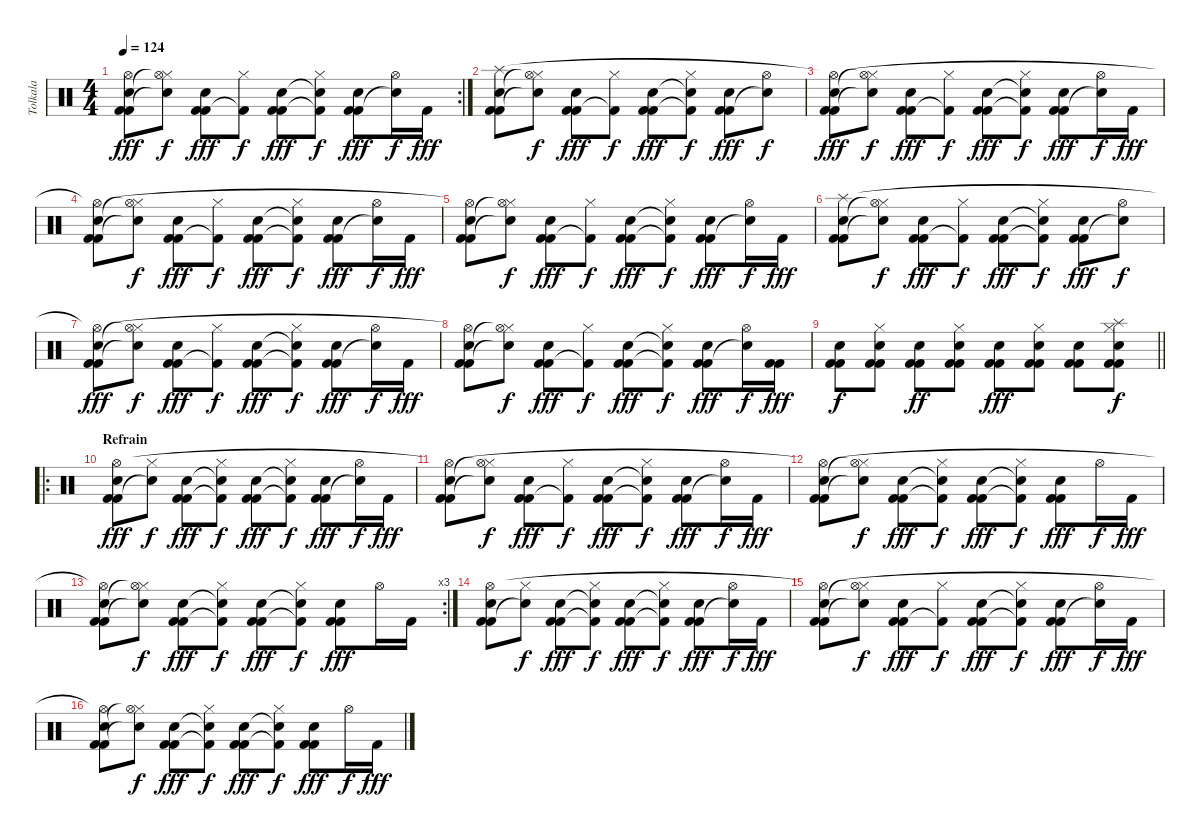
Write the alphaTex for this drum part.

\track ("Tolkala" "Tolkala") {instrument percussion}
\staff {score}
\articulation defaults
\rc 2
\ts (4 4)
\tempo 124
\clef neutral
\ks c
("Kick (hit) 2" "Kick (hit) 2" "Snare (hit) 2" "Hi-Hat (open)"{t}).8{dy fff} ("Hi-Hat (closed)" "Snare (hit) 2"{t} "Hi-Hat (open)"{t}).8{dy f} ("Kick (hit) 2" "Kick (hit) 2" "Snare (hit) 2").8{dy fff} ("Kick (hit) 2"{t} "Hi-Hat (closed)").8{dy f} ("Kick (hit) 2" "Kick (hit) 2" "Snare (hit) 2").8{dy fff} ("Kick (hit) 2"{t} "Hi-Hat (closed)" "Snare (hit) 2"{t}).8{dy f} ("Kick (hit) 2" "Kick (hit) 2" "Snare (hit) 2").8{dy fff} ("Snare (hit) 2"{t} "Hi-Hat (open)").16{dy f} "Kick (hit) 2".16{dy fff} |
("Kick (hit) 2" "Kick (hit) 2" "Snare (hit) 2" "Splash (hit)").8 ("Hi-Hat (closed)" "Snare (hit) 2"{t} "Hi-Hat (open)"{t}).8{dy f} ("Kick (hit) 2" "Kick (hit) 2" "Snare (hit) 2").8{dy fff} ("Kick (hit) 2"{t} "Hi-Hat (closed)").8{dy f} ("Kick (hit) 2" "Kick (hit) 2" "Snare (hit) 2").8{dy fff} ("Kick (hit) 2"{t} "Hi-Hat (closed)" "Snare (hit) 2"{t}).8{dy f} ("Kick (hit) 2" "Kick (hit) 2" "Snare (hit) 2").8{dy fff} ("Snare (hit) 2"{t} "Hi-Hat (open)").8{dy f} |
("Kick (hit) 2" "Kick (hit) 2" "Snare (hit) 2" "Hi-Hat (open)"{t}).8{dy fff} ("Hi-Hat (closed)" "Snare (hit) 2"{t} "Hi-Hat (open)"{t}).8{dy f} ("Kick (hit) 2" "Kick (hit) 2" "Snare (hit) 2").8{dy fff} ("Kick (hit) 2"{t} "Hi-Hat (closed)").8{dy f} ("Kick (hit) 2" "Kick (hit) 2" "Snare (hit) 2").8{dy fff} ("Kick (hit) 2"{t} "Hi-Hat (closed)" "Snare (hit) 2"{t}).8{dy f} ("Kick (hit) 2" "Kick (hit) 2" "Snare (hit) 2").8{dy fff} ("Snare (hit) 2"{t} "Hi-Hat (open)").16{dy f} "Kick (hit) 2".16{dy fff} |
("Kick (hit) 2" "Kick (hit) 2" "Snare (hit) 2" "Hi-Hat (open)"{t}).8 ("Hi-Hat (closed)" "Snare (hit) 2"{t} "Hi-Hat (open)"{t}).8{dy f} ("Kick (hit) 2" "Kick (hit) 2" "Snare (hit) 2").8{dy fff} ("Kick (hit) 2"{t} "Hi-Hat (closed)").8{dy f} ("Kick (hit) 2" "Kick (hit) 2" "Snare (hit) 2").8{dy fff} ("Kick (hit) 2"{t} "Hi-Hat (closed)" "Snare (hit) 2"{t}).8{dy f} ("Kick (hit) 2" "Kick (hit) 2" "Snare (hit) 2").8{dy fff} ("Snare (hit) 2"{t} "Hi-Hat (open)").16{dy f} "Kick (hit) 2".16{dy fff} |
("Kick (hit) 2" "Kick (hit) 2" "Snare (hit) 2" "Hi-Hat (open)"{t}).8 ("Hi-Hat (closed)" "Snare (hit) 2"{t} "Hi-Hat (open)"{t}).8{dy f} ("Kick (hit) 2" "Kick (hit) 2" "Snare (hit) 2").8{dy fff} ("Kick (hit) 2"{t} "Hi-Hat (closed)").8{dy f} ("Kick (hit) 2" "Kick (hit) 2" "Snare (hit) 2").8{dy fff} ("Kick (hit) 2"{t} "Hi-Hat (closed)" "Snare (hit) 2"{t}).8{dy f} ("Kick (hit) 2" "Kick (hit) 2" "Snare (hit) 2").8{dy fff} ("Snare (hit) 2"{t} "Hi-Hat (open)").16{dy f} "Kick (hit) 2".16{dy fff} |
("Kick (hit) 2" "Kick (hit) 2" "Snare (hit) 2" "Splash (hit)").8 ("Hi-Hat (closed)" "Snare (hit) 2"{t} "Hi-Hat (open)"{t}).8{dy f} ("Kick (hit) 2" "Kick (hit) 2" "Snare (hit) 2").8{dy fff} ("Kick (hit) 2"{t} "Hi-Hat (closed)").8{dy f} ("Kick (hit) 2" "Kick (hit) 2" "Snare (hit) 2").8{dy fff} ("Kick (hit) 2"{t} "Hi-Hat (closed)" "Snare (hit) 2"{t}).8{dy f} ("Kick (hit) 2" "Kick (hit) 2" "Snare (hit) 2").8{dy fff} ("Snare (hit) 2"{t} "Hi-Hat (open)").8{dy f} |
("Kick (hit) 2" "Kick (hit) 2" "Snare (hit) 2" "Hi-Hat (open)"{t}).8{dy fff} ("Hi-Hat (closed)" "Snare (hit) 2"{t} "Hi-Hat (open)"{t}).8{dy f} ("Kick (hit) 2" "Kick (hit) 2" "Snare (hit) 2").8{dy fff} ("Kick (hit) 2"{t} "Hi-Hat (closed)").8{dy f} ("Kick (hit) 2" "Kick (hit) 2" "Snare (hit) 2").8{dy fff} ("Kick (hit) 2"{t} "Hi-Hat (closed)" "Snare (hit) 2"{t}).8{dy f} ("Kick (hit) 2" "Kick (hit) 2" "Snare (hit) 2").8{dy fff} ("Snare (hit) 2"{t} "Hi-Hat (open)").16{dy f} "Kick (hit) 2".16{dy fff} |
("Kick (hit) 2" "Kick (hit) 2" "Snare (hit) 2" "Hi-Hat (open)"{t}).8 ("Hi-Hat (closed)" "Snare (hit) 2"{t} "Hi-Hat (open)"{t}).8{dy f} ("Kick (hit) 2" "Kick (hit) 2" "Snare (hit) 2").8{dy fff} ("Kick (hit) 2"{t} "Hi-Hat (closed)").8{dy f} ("Kick (hit) 2" "Kick (hit) 2" "Snare (hit) 2").8{dy fff} ("Kick (hit) 2"{t} "Hi-Hat (closed)" "Snare (hit) 2"{t}).8{dy f} ("Kick (hit) 2" "Kick (hit) 2" "Snare (hit) 2").8{dy fff} ("Snare (hit) 2"{t} "Hi-Hat (open)").16{dy f} ("Kick (hit) 2" "Kick (hit) 2").16{dy fff} |
\barLineRight lightlight
("Kick (hit) 2" "Kick (hit) 2" "Snare (hit) 2").8{dy f} ("Kick (hit) 2" "Kick (hit) 2" "Hi-Hat (closed)" "Snare (hit) 2").8 ("Kick (hit) 2" "Kick (hit) 2" "Snare (hit) 2").8{dy ff} ("Kick (hit) 2" "Kick (hit) 2" "Hi-Hat (closed)" "Snare (hit) 2").8 ("Kick (hit) 2" "Kick (hit) 2" "Snare (hit) 2").8{dy fff} ("Kick (hit) 2" "Kick (hit) 2" "Hi-Hat (closed)" "Snare (hit) 2").8 ("Kick (hit) 2" "Kick (hit) 2" "Snare (hit) 2").8 ("Kick (hit) 2" "Kick (hit) 2" "Hi-Hat (closed)" "Snare (hit) 2" "Splash (hit)").8{dy f} |
\ro
\section ("" "Refrain")
("Kick (hit) 2" "Kick (hit) 2" "Snare (hit) 2" "Hi-Hat (open)").8{dy fff volume 16} ("Hi-Hat (closed)" "Snare (hit) 2"{t}).8{dy f} ("Kick (hit) 2" "Kick (hit) 2" "Snare (hit) 2").8{dy fff} ("Kick (hit) 2"{t} "Hi-Hat (closed)" "Snare (hit) 2"{t}).8{dy f} ("Kick (hit) 2" "Kick (hit) 2" "Snare (hit) 2").8{dy fff} ("Kick (hit) 2"{t} "Hi-Hat (closed)" "Snare (hit) 2"{t}).8{dy f} ("Kick (hit) 2" "Kick (hit) 2" "Snare (hit) 2").8{dy fff} ("Snare (hit) 2"{t} "Hi-Hat (open)").16{dy f} "Kick (hit) 2".16{dy fff} |
("Kick (hit) 2" "Kick (hit) 2" "Snare (hit) 2" "Hi-Hat (open)"{t}).8 ("Hi-Hat (closed)" "Snare (hit) 2"{t} "Hi-Hat (open)"{t}).8{dy f} ("Kick (hit) 2" "Kick (hit) 2" "Snare (hit) 2").8{dy fff} ("Kick (hit) 2"{t} "Hi-Hat (closed)").8{dy f} ("Kick (hit) 2" "Kick (hit) 2" "Snare (hit) 2").8{dy fff} ("Kick (hit) 2"{t} "Hi-Hat (closed)" "Snare (hit) 2"{t}).8{dy f} ("Kick (hit) 2" "Kick (hit) 2" "Snare (hit) 2").8{dy fff} ("Snare (hit) 2"{t} "Hi-Hat (open)").16{dy f} "Kick (hit) 2".16{dy fff} |
("Kick (hit) 2" "Kick (hit) 2" "Snare (hit) 2" "Hi-Hat (open)"{t}).8 ("Hi-Hat (closed)" "Snare (hit) 2"{t} "Hi-Hat (open)"{t}).8{dy f} ("Kick (hit) 2" "Kick (hit) 2" "Snare (hit) 2").8{dy fff} ("Kick (hit) 2"{t} "Hi-Hat (closed)" "Snare (hit) 2"{t}).8{dy f} ("Kick (hit) 2" "Kick (hit) 2" "Snare (hit) 2").8{dy fff} ("Kick (hit) 2"{t} "Hi-Hat (closed)" "Snare (hit) 2"{t}).8{dy f} ("Kick (hit) 2" "Kick (hit) 2" "Snare (hit) 2").8{dy fff} "Hi-Hat (open)".16{dy f} "Kick (hit) 2".16{dy fff} |
\rc 3
("Kick (hit) 2" "Kick (hit) 2" "Snare (hit) 2" "Hi-Hat (open)"{t}).8 ("Hi-Hat (closed)" "Snare (hit) 2"{t} "Hi-Hat (open)"{t}).8{dy f} ("Kick (hit) 2" "Kick (hit) 2" "Snare (hit) 2").8{dy fff} ("Kick (hit) 2"{t} "Hi-Hat (closed)" "Snare (hit) 2"{t}).8{dy f} ("Kick (hit) 2" "Kick (hit) 2" "Snare (hit) 2").8{dy fff} ("Kick (hit) 2"{t} "Hi-Hat (closed)" "Snare (hit) 2"{t}).8{dy f} ("Kick (hit) 2" "Kick (hit) 2" "Snare (hit) 2").8{dy fff} "Hi-Hat (open)".16 "Kick (hit) 2".16 |
("Kick (hit) 2" "Kick (hit) 2" "Snare (hit) 2" "Hi-Hat (open)").8{volume 16} ("Hi-Hat (closed)" "Snare (hit) 2"{t}).8{dy f} ("Kick (hit) 2" "Kick (hit) 2" "Snare (hit) 2").8{dy fff} ("Kick (hit) 2"{t} "Hi-Hat (closed)" "Snare (hit) 2"{t}).8{dy f} ("Kick (hit) 2" "Kick (hit) 2" "Snare (hit) 2").8{dy fff} ("Kick (hit) 2"{t} "Hi-Hat (closed)" "Snare (hit) 2"{t}).8{dy f} ("Kick (hit) 2" "Kick (hit) 2" "Snare (hit) 2").8{dy fff} ("Snare (hit) 2"{t} "Hi-Hat (open)").16{dy f} "Kick (hit) 2".16{dy fff} |
("Kick (hit) 2" "Kick (hit) 2" "Snare (hit) 2" "Hi-Hat (open)"{t}).8 ("Hi-Hat (closed)" "Snare (hit) 2"{t} "Hi-Hat (open)"{t}).8{dy f} ("Kick (hit) 2" "Kick (hit) 2" "Snare (hit) 2").8{dy fff} ("Kick (hit) 2"{t} "Hi-Hat (closed)").8{dy f} ("Kick (hit) 2" "Kick (hit) 2" "Snare (hit) 2").8{dy fff} ("Kick (hit) 2"{t} "Hi-Hat (closed)" "Snare (hit) 2"{t}).8{dy f} ("Kick (hit) 2" "Kick (hit) 2" "Snare (hit) 2").8{dy fff} ("Snare (hit) 2"{t} "Hi-Hat (open)").16{dy f} "Kick (hit) 2".16{dy fff} |
("Kick (hit) 2" "Kick (hit) 2" "Snare (hit) 2" "Hi-Hat (open)"{t}).8 ("Hi-Hat (closed)" "Snare (hit) 2"{t} "Hi-Hat (open)"{t}).8{dy f} ("Kick (hit) 2" "Kick (hit) 2" "Snare (hit) 2").8{dy fff} ("Kick (hit) 2"{t} "Hi-Hat (closed)" "Snare (hit) 2"{t}).8{dy f} ("Kick (hit) 2" "Kick (hit) 2" "Snare (hit) 2").8{dy fff} ("Kick (hit) 2"{t} "Hi-Hat (closed)" "Snare (hit) 2"{t}).8{dy f} ("Kick (hit) 2" "Kick (hit) 2" "Snare (hit) 2").8{dy fff} "Hi-Hat (open)".16{dy f} "Kick (hit) 2".16{dy fff}
